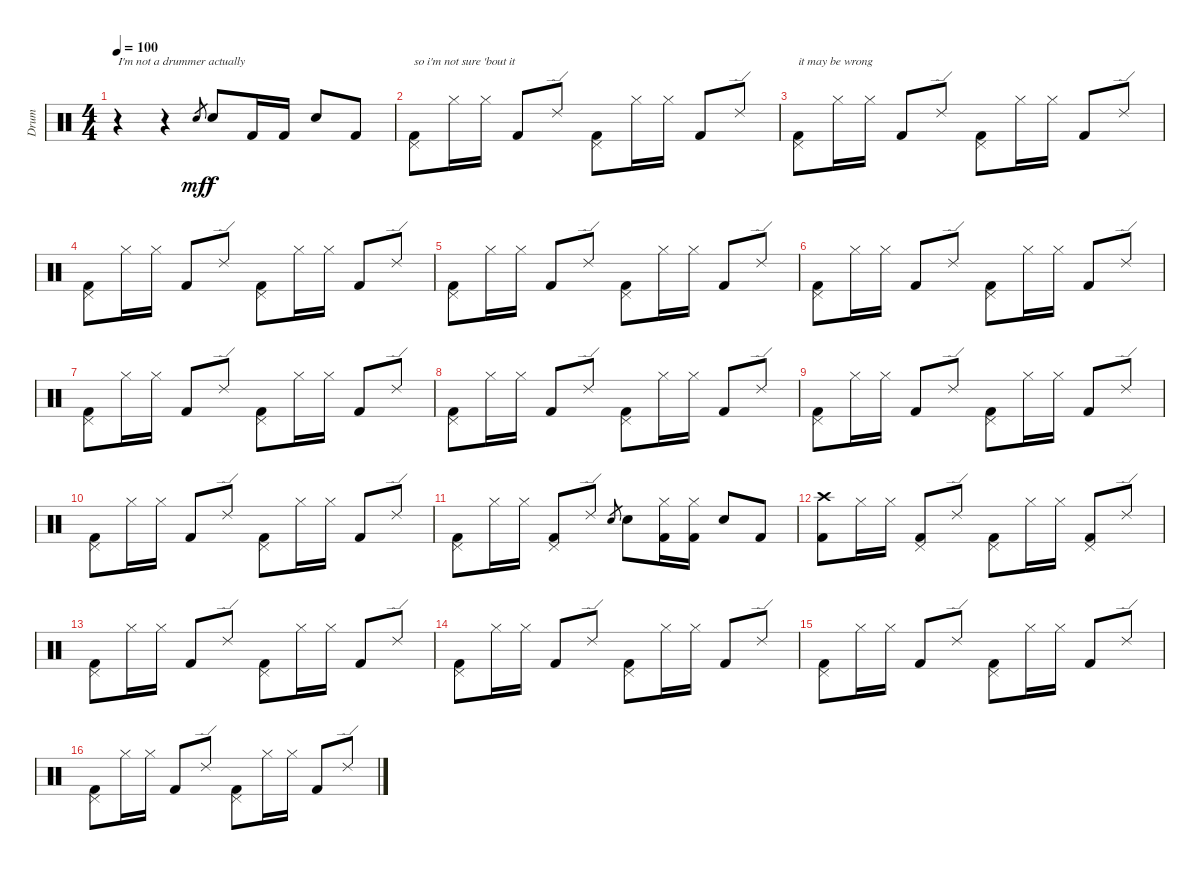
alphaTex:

\track ("Drum " "Drum ") {instrument percussion}
\staff {score}
\articulation defaults
\ts (4 4)
\tempo 100
\clef neutral
\ks c
r.4{txt "I'm not a drummer actually " dy mf} r.4 "Electric Snare (hit)".8{gr} "Electric Snare (hit)".8{dy f} "Kick (hit) 2".16 "Kick (hit) 2".16 "Electric Snare (hit)".8 "Kick (hit) 2".8 |
("Pedal Hi-Hat (hit)" "Kick (hit) 2").8{txt "so i'm not sure 'bout it"} "Hi-Hat (closed)".16 "Hi-Hat (closed)".16 "Kick (hit) 2".8 "Ride (edge) 2".8 ("Pedal Hi-Hat (hit)" "Kick (hit) 2").8 "Hi-Hat (closed)".16 "Hi-Hat (closed)".16 "Kick (hit) 2".8 "Ride (edge) 2".8 |
("Pedal Hi-Hat (hit)" "Kick (hit) 2").8{txt "it may be wrong"} "Hi-Hat (closed)".16 "Hi-Hat (closed)".16 "Kick (hit) 2".8 "Ride (edge) 2".8 ("Pedal Hi-Hat (hit)" "Kick (hit) 2").8 "Hi-Hat (closed)".16 "Hi-Hat (closed)".16 "Kick (hit) 2".8 "Ride (edge) 2".8 |
("Pedal Hi-Hat (hit)" "Kick (hit) 2").8 "Hi-Hat (closed)".16 "Hi-Hat (closed)".16 "Kick (hit) 2".8 "Ride (edge) 2".8 ("Pedal Hi-Hat (hit)" "Kick (hit) 2").8 "Hi-Hat (closed)".16 "Hi-Hat (closed)".16 "Kick (hit) 2".8 "Ride (edge) 2".8 |
("Pedal Hi-Hat (hit)" "Kick (hit) 2").8 "Hi-Hat (closed)".16 "Hi-Hat (closed)".16 "Kick (hit) 2".8 "Ride (edge) 2".8 ("Pedal Hi-Hat (hit)" "Kick (hit) 2").8 "Hi-Hat (closed)".16 "Hi-Hat (closed)".16 "Kick (hit) 2".8 "Ride (edge) 2".8 |
("Pedal Hi-Hat (hit)" "Kick (hit) 2").8 "Hi-Hat (closed)".16 "Hi-Hat (closed)".16 "Kick (hit) 2".8 "Ride (edge) 2".8 ("Pedal Hi-Hat (hit)" "Kick (hit) 2").8 "Hi-Hat (closed)".16 "Hi-Hat (closed)".16 "Kick (hit) 2".8 "Ride (edge) 2".8 |
("Pedal Hi-Hat (hit)" "Kick (hit) 2").8 "Hi-Hat (closed)".16 "Hi-Hat (closed)".16 "Kick (hit) 2".8 "Ride (edge) 2".8 ("Pedal Hi-Hat (hit)" "Kick (hit) 2").8 "Hi-Hat (closed)".16 "Hi-Hat (closed)".16 "Kick (hit) 2".8 "Ride (edge) 2".8 |
("Pedal Hi-Hat (hit)" "Kick (hit) 2").8 "Hi-Hat (closed)".16 "Hi-Hat (closed)".16 "Kick (hit) 2".8 "Ride (edge) 2".8 ("Pedal Hi-Hat (hit)" "Kick (hit) 2").8 "Hi-Hat (closed)".16 "Hi-Hat (closed)".16 "Kick (hit) 2".8 "Ride (edge) 2".8 |
("Pedal Hi-Hat (hit)" "Kick (hit) 2").8 "Hi-Hat (closed)".16 "Hi-Hat (closed)".16 "Kick (hit) 2".8 "Ride (edge) 2".8 ("Pedal Hi-Hat (hit)" "Kick (hit) 2").8 "Hi-Hat (closed)".16 "Hi-Hat (closed)".16 "Kick (hit) 2".8 "Ride (edge) 2".8 |
("Pedal Hi-Hat (hit)" "Kick (hit) 2").8 "Hi-Hat (closed)".16 "Hi-Hat (closed)".16 "Kick (hit) 2".8 "Ride (edge) 2".8 ("Pedal Hi-Hat (hit)" "Kick (hit) 2").8 "Hi-Hat (closed)".16 "Hi-Hat (closed)".16 "Kick (hit) 2".8 "Ride (edge) 2".8 |
("Pedal Hi-Hat (hit)" "Kick (hit) 2").8 "Hi-Hat (closed)".16 "Hi-Hat (closed)".16 ("Pedal Hi-Hat (hit)" "Kick (hit) 2").8 "Ride (edge) 2".8 "Electric Snare (hit)".8{gr} "Electric Snare (hit)".8 ("Kick (hit) 2" "Hi-Hat (closed)").16 ("Kick (hit) 2" "Hi-Hat (closed)").16 "Electric Snare (hit)".8 "Kick (hit) 2".8 |
("Crash high (hit)" "Kick (hit) 2").8 "Hi-Hat (closed)".16 "Hi-Hat (closed)".16 ("Pedal Hi-Hat (hit)" "Kick (hit) 2").8 "Ride (edge) 2".8 ("Pedal Hi-Hat (hit)" "Kick (hit) 2").8 "Hi-Hat (closed)".16 "Hi-Hat (closed)".16 ("Pedal Hi-Hat (hit)" "Kick (hit) 2").8 "Ride (edge) 2".8 |
("Pedal Hi-Hat (hit)" "Kick (hit) 2").8 "Hi-Hat (closed)".16 "Hi-Hat (closed)".16 "Kick (hit) 2".8 "Ride (edge) 2".8 ("Pedal Hi-Hat (hit)" "Kick (hit) 2").8 "Hi-Hat (closed)".16 "Hi-Hat (closed)".16 "Kick (hit) 2".8 "Ride (edge) 2".8 |
("Pedal Hi-Hat (hit)" "Kick (hit) 2").8 "Hi-Hat (closed)".16 "Hi-Hat (closed)".16 "Kick (hit) 2".8 "Ride (edge) 2".8 ("Pedal Hi-Hat (hit)" "Kick (hit) 2").8 "Hi-Hat (closed)".16 "Hi-Hat (closed)".16 "Kick (hit) 2".8 "Ride (edge) 2".8 |
("Pedal Hi-Hat (hit)" "Kick (hit) 2").8 "Hi-Hat (closed)".16 "Hi-Hat (closed)".16 "Kick (hit) 2".8 "Ride (edge) 2".8 ("Pedal Hi-Hat (hit)" "Kick (hit) 2").8 "Hi-Hat (closed)".16 "Hi-Hat (closed)".16 "Kick (hit) 2".8 "Ride (edge) 2".8 |
("Pedal Hi-Hat (hit)" "Kick (hit) 2").8 "Hi-Hat (closed)".16 "Hi-Hat (closed)".16 "Kick (hit) 2".8 "Ride (edge) 2".8 ("Pedal Hi-Hat (hit)" "Kick (hit) 2").8 "Hi-Hat (closed)".16 "Hi-Hat (closed)".16 "Kick (hit) 2".8 "Ride (edge) 2".8
